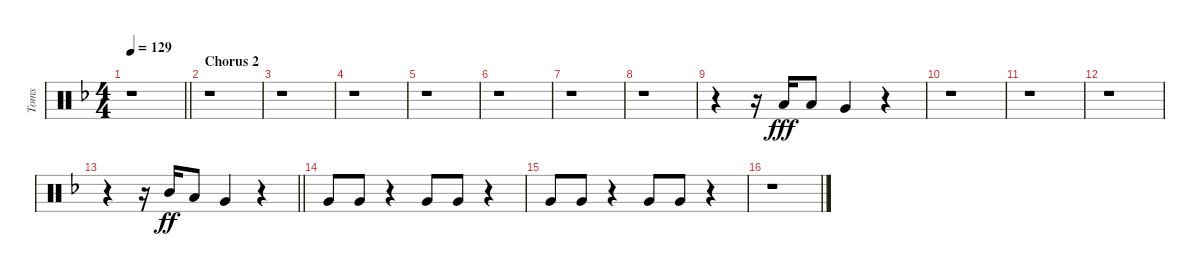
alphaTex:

\track ("Toms" "Toms") {instrument percussion}
\staff {score}
\articulation defaults
\ts (4 4)
\tempo 129
\clef neutral
\barLineRight lightlight
\ks dminor
r.1{dy ff} |
\section ("" "Chorus 2")
r.1 |
r.1 |
r.1 |
r.1 |
r.1 |
r.1 |
r.1 |
r.4 r.16 "Low Tom (hit)".16{dy fff balance 8} "Low Tom (hit)".8 "Very Low Tom (hit)".4{balance 4} r.4 |
r.1 |
r.1 |
r.1 |
\barLineRight lightlight
r.4 r.16{balance 12} "Mid Tom (hit)".16{dy ff} "Low Tom (hit)".8{balance 8} "Very Low Tom (hit)".4{balance 4} r.4 |
"Very Low Tom (hit)".8 "Very Low Tom (hit)".8 r.4 "Very Low Tom (hit)".8 "Very Low Tom (hit)".8 r.4 |
"Very Low Tom (hit)".8 "Very Low Tom (hit)".8 r.4 "Very Low Tom (hit)".8 "Very Low Tom (hit)".8 r.4 |
r.1
